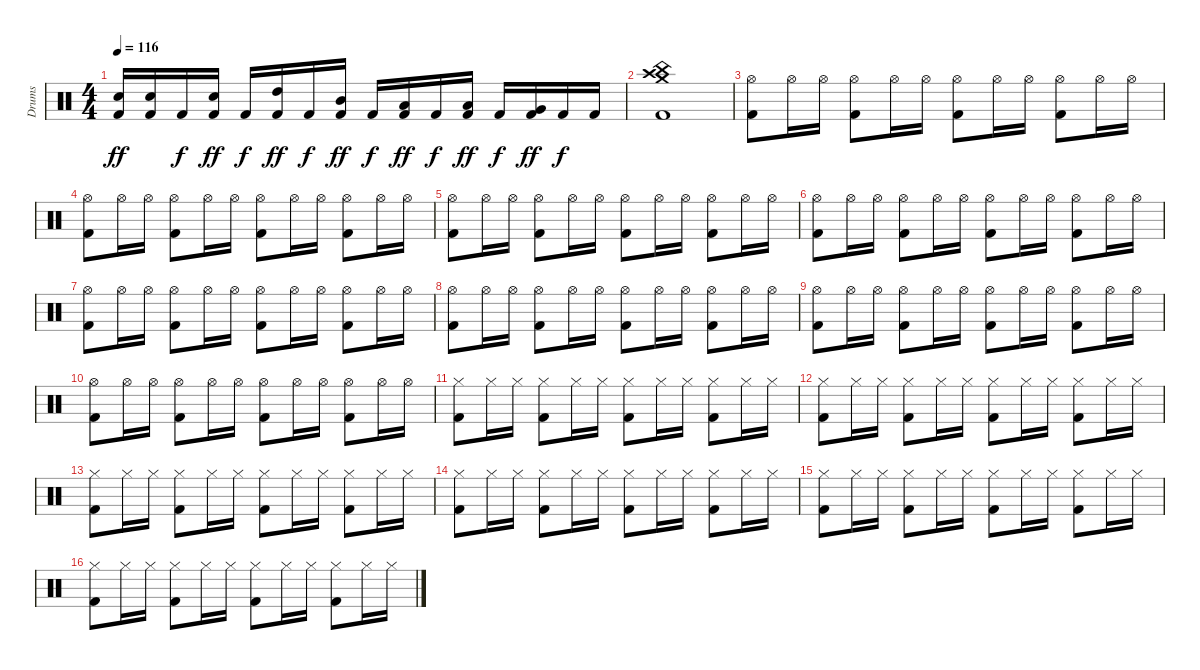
\track ("Drums" "Drums") {instrument percussion}
\staff {score}
\articulation defaults
\ts (4 4)
\tempo 116
\clef neutral
\ks c
("Electric Snare (hit)" "Kick (hit) 2").16{dy ff} ("Electric Snare (hit)" "Kick (hit) 2").16 "Kick (hit) 2".16{dy f} ("Electric Snare (hit)" "Kick (hit) 2").16{dy ff} "Kick (hit) 2".16{dy f} ("High Tom (hit)" "Kick (hit) 2").16{dy ff} "Kick (hit) 2".16{dy f} ("Mid Tom (hit)" "Kick (hit) 2").16{dy ff} "Kick (hit) 2".16{dy f} ("Low Tom (hit)" "Kick (hit) 2").16{dy ff} "Kick (hit) 2".16{dy f} ("Low Tom (hit)" "Kick (hit) 2").16{dy ff} "Kick (hit) 2".16{dy f} ("Very Low Tom (hit)" "Kick (hit) 2").16{dy ff} "Kick (hit) 2".16{dy f} "Kick (hit) 2".16 |
("Crash medium (hit)" "Crash high (hit)" "China (hit)" "Kick (hit) 2").1 |
("Hi-Hat (open)" "Kick (hit) 2").8 "Hi-Hat (open)".16 "Hi-Hat (open)".16 ("Hi-Hat (open)" "Kick (hit) 2").8 "Hi-Hat (open)".16 "Hi-Hat (open)".16 ("Hi-Hat (open)" "Kick (hit) 2").8 "Hi-Hat (open)".16 "Hi-Hat (open)".16 ("Hi-Hat (open)" "Kick (hit) 2").8 "Hi-Hat (open)".16 "Hi-Hat (open)".16 |
("Hi-Hat (open)" "Kick (hit) 2").8 "Hi-Hat (open)".16 "Hi-Hat (open)".16 ("Hi-Hat (open)" "Kick (hit) 2").8 "Hi-Hat (open)".16 "Hi-Hat (open)".16 ("Hi-Hat (open)" "Kick (hit) 2").8 "Hi-Hat (open)".16 "Hi-Hat (open)".16 ("Hi-Hat (open)" "Kick (hit) 2").8 "Hi-Hat (open)".16 "Hi-Hat (open)".16 |
("Hi-Hat (open)" "Kick (hit) 2").8 "Hi-Hat (open)".16 "Hi-Hat (open)".16 ("Hi-Hat (open)" "Kick (hit) 2").8 "Hi-Hat (open)".16 "Hi-Hat (open)".16 ("Hi-Hat (open)" "Kick (hit) 2").8 "Hi-Hat (open)".16 "Hi-Hat (open)".16 ("Hi-Hat (open)" "Kick (hit) 2").8 "Hi-Hat (open)".16 "Hi-Hat (open)".16 |
("Hi-Hat (open)" "Kick (hit) 2").8 "Hi-Hat (open)".16 "Hi-Hat (open)".16 ("Hi-Hat (open)" "Kick (hit) 2").8 "Hi-Hat (open)".16 "Hi-Hat (open)".16 ("Hi-Hat (open)" "Kick (hit) 2").8 "Hi-Hat (open)".16 "Hi-Hat (open)".16 ("Hi-Hat (open)" "Kick (hit) 2").8 "Hi-Hat (open)".16 "Hi-Hat (open)".16 |
("Hi-Hat (open)" "Kick (hit) 2").8 "Hi-Hat (open)".16 "Hi-Hat (open)".16 ("Hi-Hat (open)" "Kick (hit) 2").8 "Hi-Hat (open)".16 "Hi-Hat (open)".16 ("Hi-Hat (open)" "Kick (hit) 2").8 "Hi-Hat (open)".16 "Hi-Hat (open)".16 ("Hi-Hat (open)" "Kick (hit) 2").8 "Hi-Hat (open)".16 "Hi-Hat (open)".16 |
("Hi-Hat (open)" "Kick (hit) 2").8 "Hi-Hat (open)".16 "Hi-Hat (open)".16 ("Hi-Hat (open)" "Kick (hit) 2").8 "Hi-Hat (open)".16 "Hi-Hat (open)".16 ("Hi-Hat (open)" "Kick (hit) 2").8 "Hi-Hat (open)".16 "Hi-Hat (open)".16 ("Hi-Hat (open)" "Kick (hit) 2").8 "Hi-Hat (open)".16 "Hi-Hat (open)".16 |
("Hi-Hat (open)" "Kick (hit) 2").8 "Hi-Hat (open)".16 "Hi-Hat (open)".16 ("Hi-Hat (open)" "Kick (hit) 2").8 "Hi-Hat (open)".16 "Hi-Hat (open)".16 ("Hi-Hat (open)" "Kick (hit) 2").8 "Hi-Hat (open)".16 "Hi-Hat (open)".16 ("Hi-Hat (open)" "Kick (hit) 2").8 "Hi-Hat (open)".16 "Hi-Hat (open)".16 |
("Hi-Hat (open)" "Kick (hit) 2").8 "Hi-Hat (open)".16 "Hi-Hat (open)".16 ("Hi-Hat (open)" "Kick (hit) 2").8 "Hi-Hat (open)".16 "Hi-Hat (open)".16 ("Hi-Hat (open)" "Kick (hit) 2").8 "Hi-Hat (open)".16 "Hi-Hat (open)".16 ("Hi-Hat (open)" "Kick (hit) 2").8 "Hi-Hat (open)".16 "Hi-Hat (open)".16 |
("Hi-Hat (closed)" "Kick (hit) 2").8 "Hi-Hat (closed)".16 "Hi-Hat (closed)".16 ("Hi-Hat (closed)" "Kick (hit) 2").8 "Hi-Hat (closed)".16 "Hi-Hat (closed)".16 ("Hi-Hat (closed)" "Kick (hit) 2").8 "Hi-Hat (closed)".16 "Hi-Hat (closed)".16 ("Hi-Hat (closed)" "Kick (hit) 2").8 "Hi-Hat (closed)".16 "Hi-Hat (closed)".16 |
("Hi-Hat (closed)" "Kick (hit) 2").8 "Hi-Hat (closed)".16 "Hi-Hat (closed)".16 ("Hi-Hat (closed)" "Kick (hit) 2").8 "Hi-Hat (closed)".16 "Hi-Hat (closed)".16 ("Hi-Hat (closed)" "Kick (hit) 2").8 "Hi-Hat (closed)".16 "Hi-Hat (closed)".16 ("Hi-Hat (closed)" "Kick (hit) 2").8 "Hi-Hat (closed)".16 "Hi-Hat (closed)".16 |
("Hi-Hat (closed)" "Kick (hit) 2").8 "Hi-Hat (closed)".16 "Hi-Hat (closed)".16 ("Hi-Hat (closed)" "Kick (hit) 2").8 "Hi-Hat (closed)".16 "Hi-Hat (closed)".16 ("Hi-Hat (closed)" "Kick (hit) 2").8 "Hi-Hat (closed)".16 "Hi-Hat (closed)".16 ("Hi-Hat (closed)" "Kick (hit) 2").8 "Hi-Hat (closed)".16 "Hi-Hat (closed)".16 |
("Hi-Hat (closed)" "Kick (hit) 2").8 "Hi-Hat (closed)".16 "Hi-Hat (closed)".16 ("Hi-Hat (closed)" "Kick (hit) 2").8 "Hi-Hat (closed)".16 "Hi-Hat (closed)".16 ("Hi-Hat (closed)" "Kick (hit) 2").8 "Hi-Hat (closed)".16 "Hi-Hat (closed)".16 ("Hi-Hat (closed)" "Kick (hit) 2").8 "Hi-Hat (closed)".16 "Hi-Hat (closed)".16 |
("Hi-Hat (closed)" "Kick (hit) 2").8 "Hi-Hat (closed)".16 "Hi-Hat (closed)".16 ("Hi-Hat (closed)" "Kick (hit) 2").8 "Hi-Hat (closed)".16 "Hi-Hat (closed)".16 ("Hi-Hat (closed)" "Kick (hit) 2").8 "Hi-Hat (closed)".16 "Hi-Hat (closed)".16 ("Hi-Hat (closed)" "Kick (hit) 2").8 "Hi-Hat (closed)".16 "Hi-Hat (closed)".16 |
("Hi-Hat (closed)" "Kick (hit) 2").8 "Hi-Hat (closed)".16 "Hi-Hat (closed)".16 ("Hi-Hat (closed)" "Kick (hit) 2").8 "Hi-Hat (closed)".16 "Hi-Hat (closed)".16 ("Hi-Hat (closed)" "Kick (hit) 2").8 "Hi-Hat (closed)".16 "Hi-Hat (closed)".16 ("Hi-Hat (closed)" "Kick (hit) 2").8 "Hi-Hat (closed)".16 "Hi-Hat (closed)".16
